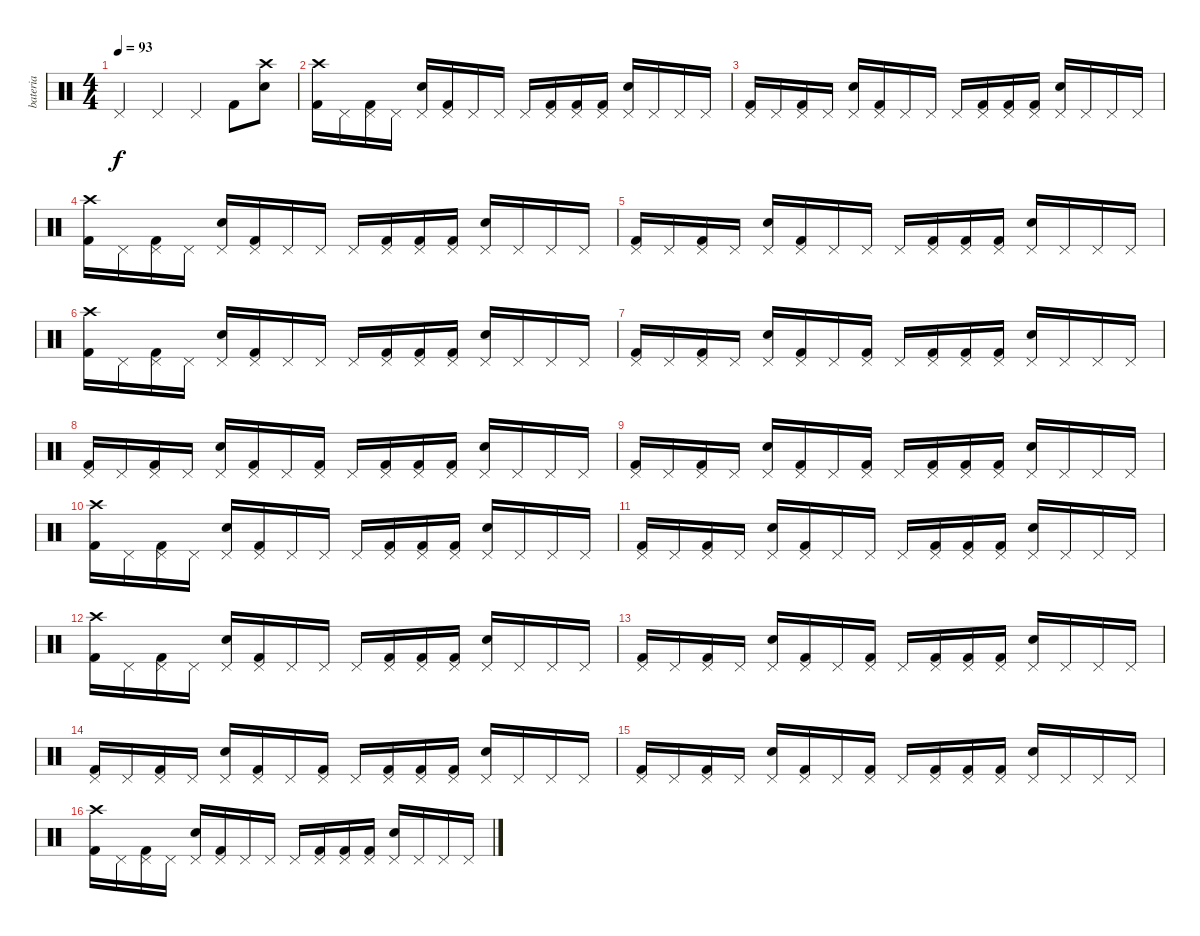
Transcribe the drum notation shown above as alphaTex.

\track ("bateria" "bateria") {instrument percussion}
\staff {score}
\articulation defaults
\ts (4 4)
\tempo 93
\clef neutral
\ks c "Pedal Hi-Hat (hit)".4{dy f} "Pedal Hi-Hat (hit)".4 "Pedal Hi-Hat (hit)".4 "Kick (hit) 2".8
("Electric Snare (hit)" "Crash high (hit)").8 |
("Kick (hit) 2" "Crash high (hit)").16 "Pedal Hi-Hat (hit)".16 ("Kick (hit) 2" "Pedal Hi-Hat (hit)").16 "Pedal Hi-Hat (hit)".16 ("Snare (hit) 2" "Pedal Hi-Hat (hit)").16 ("Kick (hit) 2" "Pedal Hi-Hat (hit)").16 "Pedal Hi-Hat (hit)".16 "Pedal Hi-Hat (hit)".16 "Pedal Hi-Hat (hit)".16 ("Kick (hit) 2" "Pedal Hi-Hat (hit)").16 ("Kick (hit) 2" "Pedal Hi-Hat (hit)").16 ("Kick (hit) 2" "Pedal Hi-Hat (hit)").16 ("Snare (hit) 2" "Pedal Hi-Hat (hit)").16 "Pedal Hi-Hat (hit)".16 "Pedal Hi-Hat (hit)".16 "Pedal Hi-Hat (hit)".16 |
("Kick (hit) 2" "Pedal Hi-Hat (hit)").16 "Pedal Hi-Hat (hit)".16 ("Kick (hit) 2" "Pedal Hi-Hat (hit)").16 "Pedal Hi-Hat (hit)".16 ("Snare (hit) 2" "Pedal Hi-Hat (hit)").16 ("Kick (hit) 2" "Pedal Hi-Hat (hit)").16 "Pedal Hi-Hat (hit)".16 "Pedal Hi-Hat (hit)".16 "Pedal Hi-Hat (hit)".16 ("Kick (hit) 2" "Pedal Hi-Hat (hit)").16 ("Kick (hit) 2" "Pedal Hi-Hat (hit)").16 ("Kick (hit) 2" "Pedal Hi-Hat (hit)").16 ("Snare (hit) 2" "Pedal Hi-Hat (hit)").16 "Pedal Hi-Hat (hit)".16 "Pedal Hi-Hat (hit)".16 "Pedal Hi-Hat (hit)".16 |
("Kick (hit) 2" "Crash high (hit)").16 "Pedal Hi-Hat (hit)".16 ("Kick (hit) 2" "Pedal Hi-Hat (hit)").16 "Pedal Hi-Hat (hit)".16 ("Snare (hit) 2" "Pedal Hi-Hat (hit)").16 ("Kick (hit) 2" "Pedal Hi-Hat (hit)").16 "Pedal Hi-Hat (hit)".16 "Pedal Hi-Hat (hit)".16 "Pedal Hi-Hat (hit)".16 ("Kick (hit) 2" "Pedal Hi-Hat (hit)").16 ("Kick (hit) 2" "Pedal Hi-Hat (hit)").16 ("Kick (hit) 2" "Pedal Hi-Hat (hit)").16 ("Snare (hit) 2" "Pedal Hi-Hat (hit)").16 "Pedal Hi-Hat (hit)".16 "Pedal Hi-Hat (hit)".16 "Pedal Hi-Hat (hit)".16 |
("Kick (hit) 2" "Pedal Hi-Hat (hit)").16 "Pedal Hi-Hat (hit)".16 ("Kick (hit) 2" "Pedal Hi-Hat (hit)").16 "Pedal Hi-Hat (hit)".16 ("Snare (hit) 2" "Pedal Hi-Hat (hit)").16 ("Kick (hit) 2" "Pedal Hi-Hat (hit)").16 "Pedal Hi-Hat (hit)".16 "Pedal Hi-Hat (hit)".16 "Pedal Hi-Hat (hit)".16 ("Kick (hit) 2" "Pedal Hi-Hat (hit)").16 ("Kick (hit) 2" "Pedal Hi-Hat (hit)").16 ("Kick (hit) 2" "Pedal Hi-Hat (hit)").16 ("Snare (hit) 2" "Pedal Hi-Hat (hit)").16 "Pedal Hi-Hat (hit)".16 "Pedal Hi-Hat (hit)".16 "Pedal Hi-Hat (hit)".16 |
("Kick (hit) 2" "Crash high (hit)").16 "Pedal Hi-Hat (hit)".16 ("Kick (hit) 2" "Pedal Hi-Hat (hit)").16 "Pedal Hi-Hat (hit)".16 ("Snare (hit) 2" "Pedal Hi-Hat (hit)").16 ("Kick (hit) 2" "Pedal Hi-Hat (hit)").16 "Pedal Hi-Hat (hit)".16 "Pedal Hi-Hat (hit)".16 "Pedal Hi-Hat (hit)".16 ("Kick (hit) 2" "Pedal Hi-Hat (hit)").16 ("Kick (hit) 2" "Pedal Hi-Hat (hit)").16 ("Kick (hit) 2" "Pedal Hi-Hat (hit)").16 ("Snare (hit) 2" "Pedal Hi-Hat (hit)").16 "Pedal Hi-Hat (hit)".16 "Pedal Hi-Hat (hit)".16 "Pedal Hi-Hat (hit)".16 |
("Kick (hit) 2" "Pedal Hi-Hat (hit)").16 "Pedal Hi-Hat (hit)".16 ("Kick (hit) 2" "Pedal Hi-Hat (hit)").16 "Pedal Hi-Hat (hit)".16 ("Snare (hit) 2" "Pedal Hi-Hat (hit)").16 ("Kick (hit) 2" "Pedal Hi-Hat (hit)").16 "Pedal Hi-Hat (hit)".16 ("Kick (hit) 2" "Pedal Hi-Hat (hit)").16 "Pedal Hi-Hat (hit)".16 ("Kick (hit) 2" "Pedal Hi-Hat (hit)").16 ("Kick (hit) 2" "Pedal Hi-Hat (hit)").16 ("Kick (hit) 2" "Pedal Hi-Hat (hit)").16 ("Snare (hit) 2" "Pedal Hi-Hat (hit)").16 "Pedal Hi-Hat (hit)".16 "Pedal Hi-Hat (hit)".16 "Pedal Hi-Hat (hit)".16 |
("Kick (hit) 2" "Pedal Hi-Hat (hit)").16 "Pedal Hi-Hat (hit)".16 ("Kick (hit) 2" "Pedal Hi-Hat (hit)").16 "Pedal Hi-Hat (hit)".16 ("Snare (hit) 2" "Pedal Hi-Hat (hit)").16 ("Kick (hit) 2" "Pedal Hi-Hat (hit)").16 "Pedal Hi-Hat (hit)".16 ("Kick (hit) 2" "Pedal Hi-Hat (hit)").16 "Pedal Hi-Hat (hit)".16 ("Kick (hit) 2" "Pedal Hi-Hat (hit)").16 ("Kick (hit) 2" "Pedal Hi-Hat (hit)").16 ("Kick (hit) 2" "Pedal Hi-Hat (hit)").16 ("Snare (hit) 2" "Pedal Hi-Hat (hit)").16 "Pedal Hi-Hat (hit)".16 "Pedal Hi-Hat (hit)".16 "Pedal Hi-Hat (hit)".16 |
("Kick (hit) 2" "Pedal Hi-Hat (hit)").16 "Pedal Hi-Hat (hit)".16 ("Kick (hit) 2" "Pedal Hi-Hat (hit)").16 "Pedal Hi-Hat (hit)".16 ("Snare (hit) 2" "Pedal Hi-Hat (hit)").16 ("Kick (hit) 2" "Pedal Hi-Hat (hit)").16 "Pedal Hi-Hat (hit)".16 ("Kick (hit) 2" "Pedal Hi-Hat (hit)").16 "Pedal Hi-Hat (hit)".16 ("Kick (hit) 2" "Pedal Hi-Hat (hit)").16 ("Kick (hit) 2" "Pedal Hi-Hat (hit)").16 ("Kick (hit) 2" "Pedal Hi-Hat (hit)").16 ("Snare (hit) 2" "Pedal Hi-Hat (hit)").16 "Pedal Hi-Hat (hit)".16 "Pedal Hi-Hat (hit)".16 "Pedal Hi-Hat (hit)".16 |
("Kick (hit) 2" "Crash high (hit)").16 "Pedal Hi-Hat (hit)".16 ("Kick (hit) 2" "Pedal Hi-Hat (hit)").16 "Pedal Hi-Hat (hit)".16 ("Snare (hit) 2" "Pedal Hi-Hat (hit)").16 ("Kick (hit) 2" "Pedal Hi-Hat (hit)").16 "Pedal Hi-Hat (hit)".16 "Pedal Hi-Hat (hit)".16 "Pedal Hi-Hat (hit)".16 ("Kick (hit) 2" "Pedal Hi-Hat (hit)").16 ("Kick (hit) 2" "Pedal Hi-Hat (hit)").16 ("Kick (hit) 2" "Pedal Hi-Hat (hit)").16 ("Snare (hit) 2" "Pedal Hi-Hat (hit)").16 "Pedal Hi-Hat (hit)".16 "Pedal Hi-Hat (hit)".16 "Pedal Hi-Hat (hit)".16 |
("Kick (hit) 2" "Pedal Hi-Hat (hit)").16 "Pedal Hi-Hat (hit)".16 ("Kick (hit) 2" "Pedal Hi-Hat (hit)").16 "Pedal Hi-Hat (hit)".16 ("Snare (hit) 2" "Pedal Hi-Hat (hit)").16 ("Kick (hit) 2" "Pedal Hi-Hat (hit)").16 "Pedal Hi-Hat (hit)".16 "Pedal Hi-Hat (hit)".16 "Pedal Hi-Hat (hit)".16 ("Kick (hit) 2" "Pedal Hi-Hat (hit)").16 ("Kick (hit) 2" "Pedal Hi-Hat (hit)").16 ("Kick (hit) 2" "Pedal Hi-Hat (hit)").16 ("Snare (hit) 2" "Pedal Hi-Hat (hit)").16 "Pedal Hi-Hat (hit)".16 "Pedal Hi-Hat (hit)".16 "Pedal Hi-Hat (hit)".16 |
("Kick (hit) 2" "Crash high (hit)").16 "Pedal Hi-Hat (hit)".16 ("Kick (hit) 2" "Pedal Hi-Hat (hit)").16 "Pedal Hi-Hat (hit)".16 ("Snare (hit) 2" "Pedal Hi-Hat (hit)").16 ("Kick (hit) 2" "Pedal Hi-Hat (hit)").16 "Pedal Hi-Hat (hit)".16 "Pedal Hi-Hat (hit)".16 "Pedal Hi-Hat (hit)".16 ("Kick (hit) 2" "Pedal Hi-Hat (hit)").16 ("Kick (hit) 2" "Pedal Hi-Hat (hit)").16 ("Kick (hit) 2" "Pedal Hi-Hat (hit)").16 ("Snare (hit) 2" "Pedal Hi-Hat (hit)").16 "Pedal Hi-Hat (hit)".16 "Pedal Hi-Hat (hit)".16 "Pedal Hi-Hat (hit)".16 |
("Kick (hit) 2" "Pedal Hi-Hat (hit)").16 "Pedal Hi-Hat (hit)".16 ("Kick (hit) 2" "Pedal Hi-Hat (hit)").16 "Pedal Hi-Hat (hit)".16 ("Snare (hit) 2" "Pedal Hi-Hat (hit)").16 ("Kick (hit) 2" "Pedal Hi-Hat (hit)").16 "Pedal Hi-Hat (hit)".16 ("Kick (hit) 2" "Pedal Hi-Hat (hit)").16 "Pedal Hi-Hat (hit)".16 ("Kick (hit) 2" "Pedal Hi-Hat (hit)").16 ("Kick (hit) 2" "Pedal Hi-Hat (hit)").16 ("Kick (hit) 2" "Pedal Hi-Hat (hit)").16 ("Snare (hit) 2" "Pedal Hi-Hat (hit)").16 "Pedal Hi-Hat (hit)".16 "Pedal Hi-Hat (hit)".16 "Pedal Hi-Hat (hit)".16 |
("Kick (hit) 2" "Pedal Hi-Hat (hit)").16 "Pedal Hi-Hat (hit)".16 ("Kick (hit) 2" "Pedal Hi-Hat (hit)").16 "Pedal Hi-Hat (hit)".16 ("Snare (hit) 2" "Pedal Hi-Hat (hit)").16 ("Kick (hit) 2" "Pedal Hi-Hat (hit)").16 "Pedal Hi-Hat (hit)".16 ("Kick (hit) 2" "Pedal Hi-Hat (hit)").16 "Pedal Hi-Hat (hit)".16 ("Kick (hit) 2" "Pedal Hi-Hat (hit)").16 ("Kick (hit) 2" "Pedal Hi-Hat (hit)").16 ("Kick (hit) 2" "Pedal Hi-Hat (hit)").16 ("Snare (hit) 2" "Pedal Hi-Hat (hit)").16 "Pedal Hi-Hat (hit)".16 "Pedal Hi-Hat (hit)".16 "Pedal Hi-Hat (hit)".16 |
("Kick (hit) 2" "Pedal Hi-Hat (hit)").16 "Pedal Hi-Hat (hit)".16 ("Kick (hit) 2" "Pedal Hi-Hat (hit)").16 "Pedal Hi-Hat (hit)".16 ("Snare (hit) 2" "Pedal Hi-Hat (hit)").16 ("Kick (hit) 2" "Pedal Hi-Hat (hit)").16 "Pedal Hi-Hat (hit)".16 ("Kick (hit) 2" "Pedal Hi-Hat (hit)").16 "Pedal Hi-Hat (hit)".16 ("Kick (hit) 2" "Pedal Hi-Hat (hit)").16 ("Kick (hit) 2" "Pedal Hi-Hat (hit)").16 ("Kick (hit) 2" "Pedal Hi-Hat (hit)").16 ("Snare (hit) 2" "Pedal Hi-Hat (hit)").16 "Pedal Hi-Hat (hit)".16 "Pedal Hi-Hat (hit)".16 "Pedal Hi-Hat (hit)".16 |
("Kick (hit) 2" "Crash high (hit)").16 "Pedal Hi-Hat (hit)".16 ("Kick (hit) 2" "Pedal Hi-Hat (hit)").16 "Pedal Hi-Hat (hit)".16 ("Snare (hit) 2" "Pedal Hi-Hat (hit)").16 ("Kick (hit) 2" "Pedal Hi-Hat (hit)").16 "Pedal Hi-Hat (hit)".16 "Pedal Hi-Hat (hit)".16 "Pedal Hi-Hat (hit)".16 ("Kick (hit) 2" "Pedal Hi-Hat (hit)").16 ("Kick (hit) 2" "Pedal Hi-Hat (hit)").16 ("Kick (hit) 2" "Pedal Hi-Hat (hit)").16 ("Snare (hit) 2" "Pedal Hi-Hat (hit)").16 "Pedal Hi-Hat (hit)".16 "Pedal Hi-Hat (hit)".16 "Pedal Hi-Hat (hit)".16
